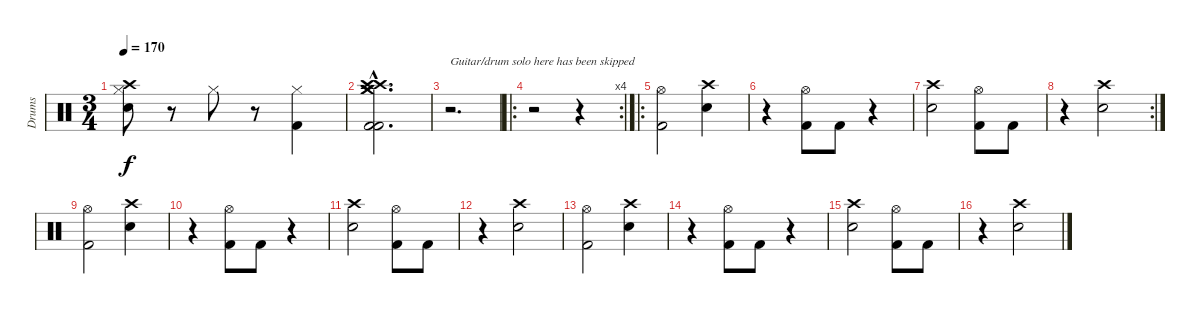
\track ("Drums" "Drums") {instrument percussion}
\staff {score}
\articulation defaults
\ts (3 4)
\tempo 170
\clef neutral
\ks c
("Hi-Hat (closed)" "Electric Snare (hit)" "Crash high (hit)").8{dy f} r.8 "Hi-Hat (closed)".8 r.8 ("Hi-Hat (closed)" "Kick (hit) 2").4 |
("Crash medium (hit)"{hac} "Crash medium (hit)"{hac} "Crash high (hit)"{hac} "Crash high (hit)"{hac} "Kick (hit) 2"{hac} "Kick (hit) 2"{hac}).2{d} |
r.2{d txt "Guitar/drum solo here has been skipped"} |
\ro
\rc 4
r.2 r.4 |
\ro
("Hi-Hat (open)" "Kick (hit) 2").2 ("Crash high (hit)" "Electric Snare (hit)").4 |
r.4 ("Hi-Hat (open)" "Kick (hit) 2").8 "Kick (hit) 2".8 r.4 |
("Crash high (hit)" "Electric Snare (hit)").2 ("Hi-Hat (open)" "Kick (hit) 2").8 "Kick (hit) 2".8 |
\rc 2
r.4 ("Crash high (hit)" "Electric Snare (hit)").2 |
("Hi-Hat (open)" "Kick (hit) 2").2 ("Crash high (hit)" "Electric Snare (hit)").4 |
r.4 ("Hi-Hat (open)" "Kick (hit) 2").8 "Kick (hit) 2".8 r.4 |
("Crash high (hit)" "Electric Snare (hit)").2 ("Hi-Hat (open)" "Kick (hit) 2").8 "Kick (hit) 2".8 |
r.4 ("Crash high (hit)" "Electric Snare (hit)").2 |
("Hi-Hat (open)" "Kick (hit) 2").2 ("Crash high (hit)" "Electric Snare (hit)").4 |
r.4 ("Hi-Hat (open)" "Kick (hit) 2").8 "Kick (hit) 2".8 r.4 |
("Crash high (hit)" "Electric Snare (hit)").2 ("Hi-Hat (open)" "Kick (hit) 2").8 "Kick (hit) 2".8 |
r.4 ("Crash high (hit)" "Electric Snare (hit)").2
